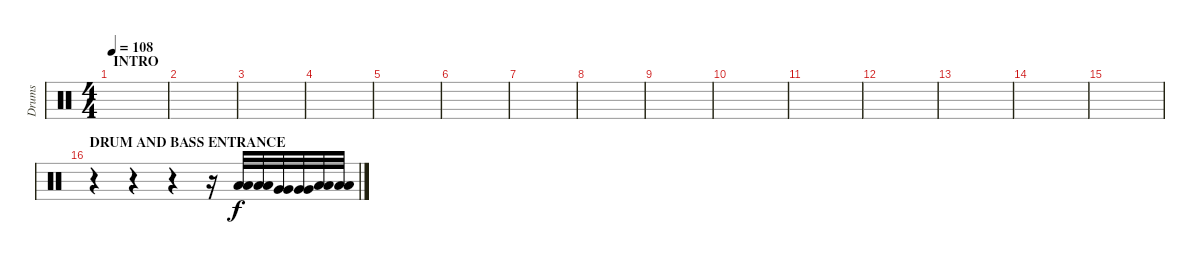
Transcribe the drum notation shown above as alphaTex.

\track ("Drums" "Drums") {instrument percussion}
\staff {score}
\articulation defaults
\ts (4 4)
\section ("" "INTRO")
\tempo 108
\clef neutral
\ks c
|
|
|
|
|
|
|
|
|
|
|
|
|
|
|
\section ("" "DRUM AND BASS ENTRANCE")
r.4 r.4 r.4 r.16 ("Low Tom (hit)" "Low Tom (hit)").32 ("Low Tom (hit)" "Low Tom (hit)").32 ("Very Low Tom (hit)" "Very Low Tom (hit)").32 ("Very Low Tom (hit)" "Very Low Tom (hit)").32 ("Low Floor Tom (hit)" "Low Floor Tom (hit)").32 ("Low Floor Tom (hit)" "Low Floor Tom (hit)").32
